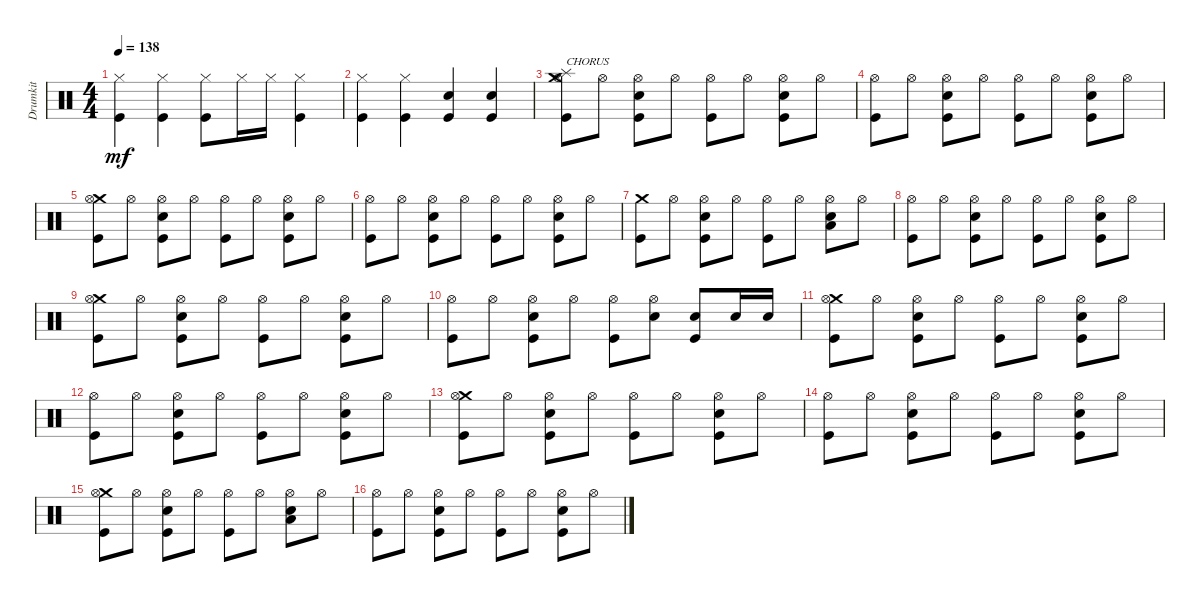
\track ("Drumkit" "Drumkit") {instrument percussion}
\staff {score}
\articulation defaults
\ts (4 4)
\tempo 138
\clef neutral
\ks c
("Hi-Hat (closed)" "Kick (hit)").4{dy mf} ("Hi-Hat (closed)" "Kick (hit)").4 ("Hi-Hat (closed)" "Kick (hit)").8 "Hi-Hat (closed)".16 "Hi-Hat (closed)".16 ("Hi-Hat (closed)" "Kick (hit)").4 |
("Hi-Hat (closed)" "Kick (hit)").4 ("Hi-Hat (closed)" "Kick (hit)").4 ("Snare (hit) 2" "Kick (hit)").4 ("Snare (hit) 2" "Kick (hit)").4 |
("Splash (hit)" "Crash medium (hit)" "Hi-Hat (open)" "Kick (hit)").8{txt "CHORUS"} "Hi-Hat (open)".8 ("Snare (hit) 2" "Hi-Hat (open)" "Kick (hit)").8 "Hi-Hat (open)".8 ("Kick (hit)" "Hi-Hat (open)").8 "Hi-Hat (open)".8 ("Snare (hit) 2" "Hi-Hat (open)" "Kick (hit)").8 "Hi-Hat (open)".8 |
("Kick (hit)" "Hi-Hat (open)").8 "Hi-Hat (open)".8 ("Snare (hit) 2" "Hi-Hat (open)" "Kick (hit)").8 "Hi-Hat (open)".8 ("Kick (hit)" "Hi-Hat (open)").8 "Hi-Hat (open)".8 ("Snare (hit) 2" "Hi-Hat (open)" "Kick (hit)").8 "Hi-Hat (open)".8 |
("Kick (hit)" "Crash medium (hit)" "Hi-Hat (open)").8 "Hi-Hat (open)".8 ("Snare (hit) 2" "Hi-Hat (open)" "Kick (hit)").8 "Hi-Hat (open)".8 ("Kick (hit)" "Hi-Hat (open)").8 "Hi-Hat (open)".8 ("Snare (hit) 2" "Hi-Hat (open)" "Kick (hit)").8 "Hi-Hat (open)".8 |
("Kick (hit)" "Hi-Hat (open)").8 "Hi-Hat (open)".8 ("Snare (hit) 2" "Hi-Hat (open)" "Kick (hit)").8 "Hi-Hat (open)".8 ("Kick (hit)" "Hi-Hat (open)").8 "Hi-Hat (open)".8 ("Snare (hit) 2" "Hi-Hat (open)" "Kick (hit)").8 "Hi-Hat (open)".8 |
("Kick (hit)" "Crash medium (hit)").8 "Hi-Hat (open)".8 ("Snare (hit) 2" "Hi-Hat (open)" "Kick (hit)").8 "Hi-Hat (open)".8 ("Kick (hit)" "Hi-Hat (open)").8 "Hi-Hat (open)".8 ("Snare (hit) 2" "Hi-Hat (open)" "Low Floor Tom (hit)").8 "Hi-Hat (open)".8 |
("Kick (hit)" "Hi-Hat (open)").8 "Hi-Hat (open)".8 ("Snare (hit) 2" "Hi-Hat (open)" "Kick (hit)").8 "Hi-Hat (open)".8 ("Kick (hit)" "Hi-Hat (open)").8 "Hi-Hat (open)".8 ("Snare (hit) 2" "Hi-Hat (open)" "Kick (hit)").8 "Hi-Hat (open)".8 |
("Kick (hit)" "Crash medium (hit)" "Hi-Hat (open)").8 "Hi-Hat (open)".8 ("Snare (hit) 2" "Hi-Hat (open)" "Kick (hit)").8 "Hi-Hat (open)".8 ("Kick (hit)" "Hi-Hat (open)").8 "Hi-Hat (open)".8 ("Snare (hit) 2" "Hi-Hat (open)" "Kick (hit)").8 "Hi-Hat (open)".8 |
("Kick (hit)" "Hi-Hat (open)").8 "Hi-Hat (open)".8 ("Snare (hit) 2" "Hi-Hat (open)" "Kick (hit)").8 "Hi-Hat (open)".8 ("Kick (hit)" "Hi-Hat (open)").8 ("Snare (hit) 2" "Hi-Hat (open)").8 ("Snare (hit) 2" "Kick (hit)").8 "Snare (hit) 2".16 "Snare (hit) 2".16 |
("Kick (hit)" "Crash medium (hit)" "Hi-Hat (open)").8 "Hi-Hat (open)".8 ("Snare (hit) 2" "Hi-Hat (open)" "Kick (hit)").8 "Hi-Hat (open)".8 ("Kick (hit)" "Hi-Hat (open)").8 "Hi-Hat (open)".8 ("Snare (hit) 2" "Hi-Hat (open)" "Kick (hit)").8 "Hi-Hat (open)".8 |
("Kick (hit)" "Hi-Hat (open)").8 "Hi-Hat (open)".8 ("Snare (hit) 2" "Hi-Hat (open)" "Kick (hit)").8 "Hi-Hat (open)".8 ("Kick (hit)" "Hi-Hat (open)").8 "Hi-Hat (open)".8 ("Snare (hit) 2" "Hi-Hat (open)" "Kick (hit)").8 "Hi-Hat (open)".8 |
("Kick (hit)" "Crash medium (hit)" "Hi-Hat (open)").8 "Hi-Hat (open)".8 ("Snare (hit) 2" "Hi-Hat (open)" "Kick (hit)").8 "Hi-Hat (open)".8 ("Kick (hit)" "Hi-Hat (open)").8 "Hi-Hat (open)".8 ("Snare (hit) 2" "Hi-Hat (open)" "Kick (hit)").8 "Hi-Hat (open)".8 |
("Kick (hit)" "Hi-Hat (open)").8 "Hi-Hat (open)".8 ("Snare (hit) 2" "Hi-Hat (open)" "Kick (hit)").8 "Hi-Hat (open)".8 ("Kick (hit)" "Hi-Hat (open)").8 "Hi-Hat (open)".8 ("Snare (hit) 2" "Hi-Hat (open)" "Kick (hit)").8 "Hi-Hat (open)".8 |
("Kick (hit)" "Crash medium (hit)" "Hi-Hat (open)").8 "Hi-Hat (open)".8 ("Snare (hit) 2" "Hi-Hat (open)" "Kick (hit)").8 "Hi-Hat (open)".8 ("Kick (hit)" "Hi-Hat (open)").8 "Hi-Hat (open)".8 ("Snare (hit) 2" "Hi-Hat (open)" "Low Floor Tom (hit)").8 "Hi-Hat (open)".8 |
("Kick (hit)" "Hi-Hat (open)").8 "Hi-Hat (open)".8 ("Snare (hit) 2" "Hi-Hat (open)" "Kick (hit)").8 "Hi-Hat (open)".8 ("Kick (hit)" "Hi-Hat (open)").8 "Hi-Hat (open)".8 ("Snare (hit) 2" "Hi-Hat (open)" "Kick (hit)").8 "Hi-Hat (open)".8
